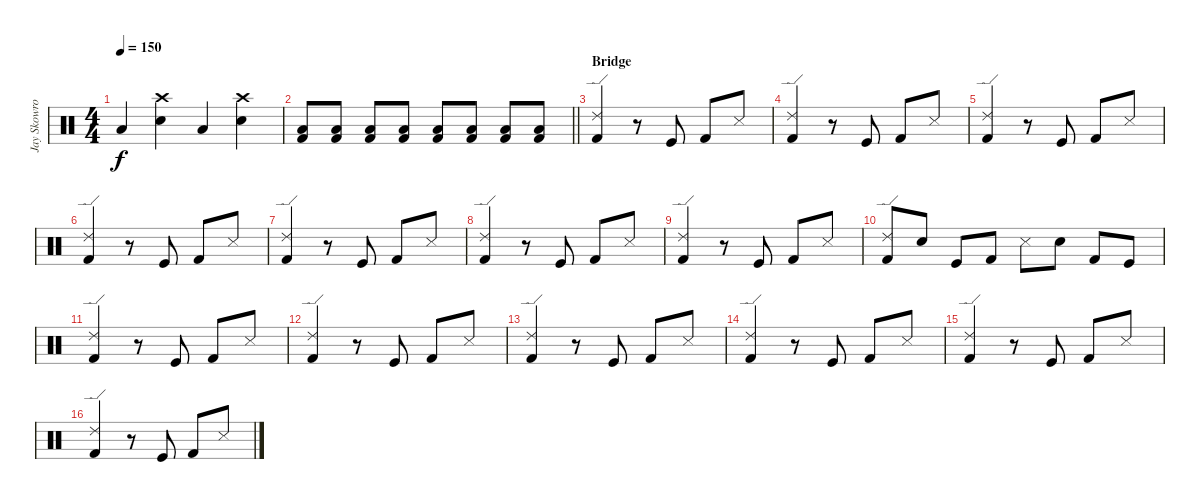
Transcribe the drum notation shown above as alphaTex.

\track ("Jay Skowronek (Drums)" "Jay Skowro") {instrument percussion}
\staff {score}
\articulation defaults
\ts (4 4)
\tempo 150
\clef neutral
\ks c "Low Floor Tom (hit)".4{dy f}
("Electric Snare (hit)" "Crash high (hit)").4 "Low Floor Tom (hit)".4 ("Electric Snare (hit)" "Crash high (hit)").4 |
\barLineRight lightlight
("Kick (hit) 2" "Low Tom (hit)").8 ("Kick (hit) 2" "Low Tom (hit)").8 ("Kick (hit) 2" "Low Tom (hit)").8 ("Kick (hit) 2" "Low Tom (hit)").8 ("Kick (hit) 2" "Low Tom (hit)").8 ("Kick (hit) 2" "Low Tom (hit)").8 ("Kick (hit) 2" "Low Tom (hit)").8 ("Kick (hit) 2" "Low Tom (hit)").8 |
\section ("" "Bridge")
("Kick (hit) 2" "Ride (edge) 2").4 r.8 "Kick (hit)".8 "Kick (hit) 2".8 "Snare (side stick) 3".8 |
("Kick (hit) 2" "Ride (edge) 2").4 r.8 "Kick (hit)".8 "Kick (hit) 2".8 "Snare (side stick) 3".8 |
("Kick (hit) 2" "Ride (edge) 2").4 r.8 "Kick (hit)".8 "Kick (hit) 2".8 "Snare (side stick) 3".8 |
("Kick (hit) 2" "Ride (edge) 2").4 r.8 "Kick (hit)".8 "Kick (hit) 2".8 "Snare (side stick) 3".8 |
("Kick (hit) 2" "Ride (edge) 2").4 r.8 "Kick (hit)".8 "Kick (hit) 2".8 "Snare (side stick) 3".8 |
("Kick (hit) 2" "Ride (edge) 2").4 r.8 "Kick (hit)".8 "Kick (hit) 2".8 "Snare (side stick) 3".8 |
("Kick (hit) 2" "Ride (edge) 2").4 r.8 "Kick (hit)".8 "Kick (hit) 2".8 "Snare (side stick) 3".8 |
("Kick (hit) 2" "Ride (edge) 2").8 "Snare (hit) 2".8 "Kick (hit)".8 "Kick (hit) 2".8 "Snare (side stick) 3".8 "Hand Clap (hit)".8 "Kick (hit) 2".8 "Kick (hit)".8 |
("Kick (hit) 2" "Ride (edge) 2").4 r.8 "Kick (hit)".8 "Kick (hit) 2".8 "Snare (side stick) 3".8 |
("Kick (hit) 2" "Ride (edge) 2").4 r.8 "Kick (hit)".8 "Kick (hit) 2".8 "Snare (side stick) 3".8 |
("Kick (hit) 2" "Ride (edge) 2").4 r.8 "Kick (hit)".8 "Kick (hit) 2".8 "Snare (side stick) 3".8 |
("Kick (hit) 2" "Ride (edge) 2").4 r.8 "Kick (hit)".8 "Kick (hit) 2".8 "Snare (side stick) 3".8 |
("Kick (hit) 2" "Ride (edge) 2").4 r.8 "Kick (hit)".8 "Kick (hit) 2".8 "Snare (side stick) 3".8 |
("Kick (hit) 2" "Ride (edge) 2").4 r.8 "Kick (hit)".8 "Kick (hit) 2".8 "Snare (side stick) 3".8
